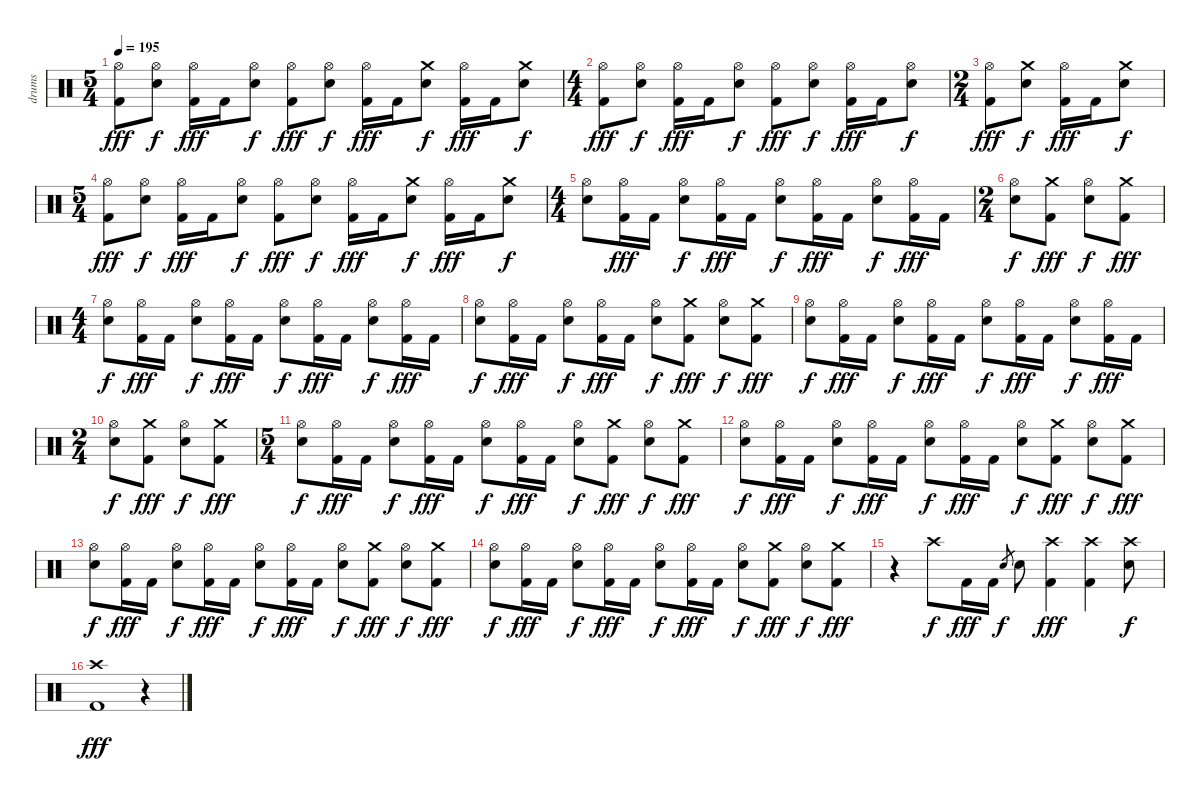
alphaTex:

\track ("drums" "drums") {instrument percussion}
\staff {score}
\articulation defaults
\ts (5 4)
\tempo 195
\clef neutral
\ks c
("Hi-Hat (open)" "Kick (hit) 2").8{dy fff} ("Hi-Hat (open)" "Snare (hit) 2").8{dy f} ("Hi-Hat (open)" "Kick (hit) 2").16{dy fff} "Kick (hit) 2".16 ("Hi-Hat (open)" "Snare (hit) 2").8{dy f} ("Hi-Hat (open)" "Kick (hit) 2").8{dy fff} ("Hi-Hat (open)" "Snare (hit) 2").8{dy f} ("Hi-Hat (open)" "Kick (hit) 2").16{dy fff} "Kick (hit) 2".16 ("Crash medium (hit)" "Snare (hit) 2").8{dy f} ("Hi-Hat (open)" "Kick (hit) 2").16{dy fff} "Kick (hit) 2".16 ("Crash medium (hit)" "Snare (hit) 2").8{dy f} |
\ts (4 4)
("Hi-Hat (open)" "Kick (hit) 2").8{dy fff} ("Hi-Hat (open)" "Snare (hit) 2").8{dy f} ("Hi-Hat (open)" "Kick (hit) 2").16{dy fff} "Kick (hit) 2".16 ("Hi-Hat (open)" "Snare (hit) 2").8{dy f} ("Hi-Hat (open)" "Kick (hit) 2").8{dy fff} ("Hi-Hat (open)" "Snare (hit) 2").8{dy f} ("Hi-Hat (open)" "Kick (hit) 2").16{dy fff} "Kick (hit) 2".16 ("Hi-Hat (open)" "Snare (hit) 2").8{dy f} |
\ts (2 4)
("Hi-Hat (open)" "Kick (hit) 2").8{dy fff} ("Crash medium (hit)" "Snare (hit) 2").8{dy f} ("Hi-Hat (open)" "Kick (hit) 2").16{dy fff} "Kick (hit) 2".16 ("Crash medium (hit)" "Snare (hit) 2").8{dy f} |
\ts (5 4)
("Hi-Hat (open)" "Kick (hit) 2").8{dy fff} ("Hi-Hat (open)" "Snare (hit) 2").8{dy f} ("Hi-Hat (open)" "Kick (hit) 2").16{dy fff} "Kick (hit) 2".16 ("Hi-Hat (open)" "Snare (hit) 2").8{dy f} ("Hi-Hat (open)" "Kick (hit) 2").8{dy fff} ("Hi-Hat (open)" "Snare (hit) 2").8{dy f} ("Hi-Hat (open)" "Kick (hit) 2").16{dy fff} "Kick (hit) 2".16 ("Crash medium (hit)" "Snare (hit) 2").8{dy f} ("Hi-Hat (open)" "Kick (hit) 2").16{dy fff} "Kick (hit) 2".16 ("Crash medium (hit)" "Snare (hit) 2").8{dy f} |
\ts (4 4)
("Hi-Hat (open)" "Snare (hit) 2").8 ("Hi-Hat (open)" "Kick (hit) 2").16{dy fff} "Kick (hit) 2".16 ("Hi-Hat (open)" "Snare (hit) 2").8{dy f} ("Hi-Hat (open)" "Kick (hit) 2").16{dy fff} "Kick (hit) 2".16 ("Hi-Hat (open)" "Snare (hit) 2").8{dy f} ("Hi-Hat (open)" "Kick (hit) 2").16{dy fff} "Kick (hit) 2".16 ("Hi-Hat (open)" "Snare (hit) 2").8{dy f} ("Hi-Hat (open)" "Kick (hit) 2").16{dy fff} "Kick (hit) 2".16 |
\ts (2 4)
("Hi-Hat (open)" "Snare (hit) 2").8{dy f} ("Crash medium (hit)" "Kick (hit) 2").8{dy fff} ("Hi-Hat (open)" "Snare (hit) 2").8{dy f} ("Crash medium (hit)" "Kick (hit) 2").8{dy fff} |
\ts (4 4)
("Hi-Hat (open)" "Snare (hit) 2").8{dy f} ("Hi-Hat (open)" "Kick (hit) 2").16{dy fff} "Kick (hit) 2".16 ("Hi-Hat (open)" "Snare (hit) 2").8{dy f} ("Hi-Hat (open)" "Kick (hit) 2").16{dy fff} "Kick (hit) 2".16 ("Hi-Hat (open)" "Snare (hit) 2").8{dy f} ("Hi-Hat (open)" "Kick (hit) 2").16{dy fff} "Kick (hit) 2".16 ("Hi-Hat (open)" "Snare (hit) 2").8{dy f} ("Hi-Hat (open)" "Kick (hit) 2").16{dy fff} "Kick (hit) 2".16 |
("Hi-Hat (open)" "Snare (hit) 2").8{dy f} ("Hi-Hat (open)" "Kick (hit) 2").16{dy fff} "Kick (hit) 2".16 ("Hi-Hat (open)" "Snare (hit) 2").8{dy f} ("Hi-Hat (open)" "Kick (hit) 2").16{dy fff} "Kick (hit) 2".16 ("Hi-Hat (open)" "Snare (hit) 2").8{dy f} ("Crash medium (hit)" "Kick (hit) 2").8{dy fff} ("Hi-Hat (open)" "Snare (hit) 2").8{dy f} ("Crash medium (hit)" "Kick (hit) 2").8{dy fff} |
("Hi-Hat (open)" "Snare (hit) 2").8{dy f} ("Hi-Hat (open)" "Kick (hit) 2").16{dy fff} "Kick (hit) 2".16 ("Hi-Hat (open)" "Snare (hit) 2").8{dy f} ("Hi-Hat (open)" "Kick (hit) 2").16{dy fff} "Kick (hit) 2".16 ("Hi-Hat (open)" "Snare (hit) 2").8{dy f} ("Hi-Hat (open)" "Kick (hit) 2").16{dy fff} "Kick (hit) 2".16 ("Hi-Hat (open)" "Snare (hit) 2").8{dy f} ("Hi-Hat (open)" "Kick (hit) 2").16{dy fff} "Kick (hit) 2".16 |
\ts (2 4)
("Hi-Hat (open)" "Snare (hit) 2").8{dy f} ("Crash medium (hit)" "Kick (hit) 2").8{dy fff} ("Hi-Hat (open)" "Snare (hit) 2").8{dy f} ("Crash medium (hit)" "Kick (hit) 2").8{dy fff} |
\ts (5 4)
("Hi-Hat (open)" "Snare (hit) 2").8{dy f} ("Hi-Hat (open)" "Kick (hit) 2").16{dy fff} "Kick (hit) 2".16 ("Hi-Hat (open)" "Snare (hit) 2").8{dy f} ("Hi-Hat (open)" "Kick (hit) 2").16{dy fff} "Kick (hit) 2".16 ("Hi-Hat (open)" "Snare (hit) 2").8{dy f} ("Hi-Hat (open)" "Kick (hit) 2").16{dy fff} "Kick (hit) 2".16 ("Hi-Hat (open)" "Snare (hit) 2").8{dy f} ("Crash medium (hit)" "Kick (hit) 2").8{dy fff} ("Hi-Hat (open)" "Snare (hit) 2").8{dy f} ("Crash medium (hit)" "Kick (hit) 2").8{dy fff} |
("Hi-Hat (open)" "Snare (hit) 2").8{dy f} ("Hi-Hat (open)" "Kick (hit) 2").16{dy fff} "Kick (hit) 2".16 ("Hi-Hat (open)" "Snare (hit) 2").8{dy f} ("Hi-Hat (open)" "Kick (hit) 2").16{dy fff} "Kick (hit) 2".16 ("Hi-Hat (open)" "Snare (hit) 2").8{dy f} ("Hi-Hat (open)" "Kick (hit) 2").16{dy fff} "Kick (hit) 2".16 ("Hi-Hat (open)" "Snare (hit) 2").8{dy f} ("Crash medium (hit)" "Kick (hit) 2").8{dy fff} ("Hi-Hat (open)" "Snare (hit) 2").8{dy f} ("Crash medium (hit)" "Kick (hit) 2").8{dy fff} |
("Hi-Hat (open)" "Snare (hit) 2").8{dy f} ("Hi-Hat (open)" "Kick (hit) 2").16{dy fff} "Kick (hit) 2".16 ("Hi-Hat (open)" "Snare (hit) 2").8{dy f} ("Hi-Hat (open)" "Kick (hit) 2").16{dy fff} "Kick (hit) 2".16 ("Hi-Hat (open)" "Snare (hit) 2").8{dy f} ("Hi-Hat (open)" "Kick (hit) 2").16{dy fff} "Kick (hit) 2".16 ("Hi-Hat (open)" "Snare (hit) 2").8{dy f} ("Crash medium (hit)" "Kick (hit) 2").8{dy fff} ("Hi-Hat (open)" "Snare (hit) 2").8{dy f} ("Crash medium (hit)" "Kick (hit) 2").8{dy fff} |
("Hi-Hat (open)" "Snare (hit) 2").8{dy f} ("Hi-Hat (open)" "Kick (hit) 2").16{dy fff} "Kick (hit) 2".16 ("Hi-Hat (open)" "Snare (hit) 2").8{dy f} ("Hi-Hat (open)" "Kick (hit) 2").16{dy fff} "Kick (hit) 2".16 ("Hi-Hat (open)" "Snare (hit) 2").8{dy f} ("Hi-Hat (open)" "Kick (hit) 2").16{dy fff} "Kick (hit) 2".16 ("Hi-Hat (open)" "Snare (hit) 2").8{dy f} ("Crash medium (hit)" "Kick (hit) 2").8{dy fff} ("Hi-Hat (open)" "Snare (hit) 2").8{dy f} ("Crash medium (hit)" "Kick (hit) 2").8{dy fff} |
r.4 "Crash high (hit)".8{dy f} "Kick (hit) 2".16{dy fff} "Kick (hit) 2".16 "Snare (hit) 2".8{gr dy f} "Snare (hit) 2".8 ("Crash high (hit)" "Kick (hit) 2").4{dy fff} ("Crash high (hit)" "Kick (hit) 2").4 ("Crash high (hit)" "Snare (hit) 2").8{dy f} |
("Crash high (hit)" "Kick (hit) 2").1{dy fff} r.4
